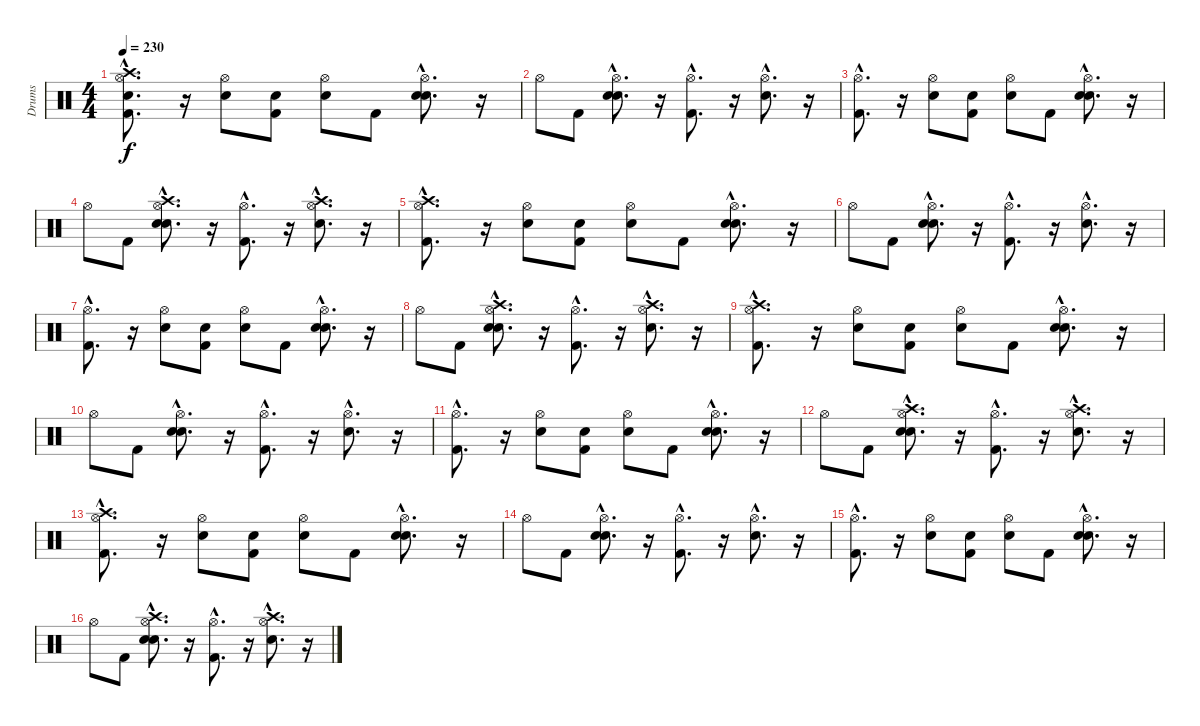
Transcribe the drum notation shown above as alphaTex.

\track ("Drums" "Drums") {instrument percussion}
\staff {score}
\articulation defaults
\ts (4 4)
\tempo 230
\clef neutral
\ks c
("Snare (hit)"{hac} "Kick (hit) 2"{hac} "Hi-Hat (open)"{hac} "Crash high (hit)"{hac}).8{d dy f} r.16 ("Snare (hit) 2" "Hi-Hat (open)").8 ("Snare (hit)" "Kick (hit) 2").8 ("Snare (hit)" "Hi-Hat (open)").8 "Kick (hit) 2".8 ("Snare (hit)"{hac} "Snare (hit) 2"{hac} "Hi-Hat (open)"{hac}).8{d} r.16 |
"Hi-Hat (open)".8 "Kick (hit) 2".8 ("Snare (hit)"{hac} "Snare (hit) 2"{hac} "Hi-Hat (open)"{hac}).8{d} r.16 ("Kick (hit) 2"{hac} "Hi-Hat (open)"{hac}).8{d} r.16 ("Snare (hit) 2"{hac} "Hi-Hat (open)"{hac}).8{d} r.16 |
("Kick (hit) 2"{hac} "Hi-Hat (open)"{hac}).8{d} r.16 ("Snare (hit) 2" "Hi-Hat (open)").8 ("Snare (hit)" "Kick (hit) 2").8 ("Snare (hit)" "Hi-Hat (open)").8 "Kick (hit) 2".8 ("Snare (hit)"{hac} "Snare (hit) 2"{hac} "Hi-Hat (open)"{hac}).8{d} r.16 |
"Hi-Hat (open)".8 "Kick (hit) 2".8 ("Snare (hit)"{hac} "Snare (hit) 2"{hac} "Hi-Hat (open)"{hac} "Crash high (hit)"{hac}).8{d} r.16 ("Kick (hit) 2"{hac} "Hi-Hat (open)"{hac}).8{d} r.16 ("Snare (hit) 2"{hac} "Hi-Hat (open)"{hac} "Crash high (hit)"{hac}).8{d} r.16 |
("Kick (hit) 2"{hac} "Hi-Hat (open)"{hac} "Crash high (hit)"{hac}).8{d} r.16 ("Snare (hit) 2" "Hi-Hat (open)").8 ("Snare (hit)" "Kick (hit) 2").8 ("Snare (hit)" "Hi-Hat (open)").8 "Kick (hit) 2".8 ("Snare (hit)"{hac} "Snare (hit) 2"{hac} "Hi-Hat (open)"{hac}).8{d} r.16 |
"Hi-Hat (open)".8 "Kick (hit) 2".8 ("Snare (hit)"{hac} "Snare (hit) 2"{hac} "Hi-Hat (open)"{hac}).8{d} r.16 ("Kick (hit) 2"{hac} "Hi-Hat (open)"{hac}).8{d} r.16 ("Snare (hit) 2"{hac} "Hi-Hat (open)"{hac}).8{d} r.16 |
("Kick (hit) 2"{hac} "Hi-Hat (open)"{hac}).8{d} r.16 ("Snare (hit) 2" "Hi-Hat (open)").8 ("Snare (hit)" "Kick (hit) 2").8 ("Snare (hit)" "Hi-Hat (open)").8 "Kick (hit) 2".8 ("Snare (hit)"{hac} "Snare (hit) 2"{hac} "Hi-Hat (open)"{hac}).8{d} r.16 |
"Hi-Hat (open)".8 "Kick (hit) 2".8 ("Snare (hit)"{hac} "Snare (hit) 2"{hac} "Hi-Hat (open)"{hac} "Crash high (hit)"{hac}).8{d} r.16 ("Kick (hit) 2"{hac} "Hi-Hat (open)"{hac}).8{d} r.16 ("Snare (hit) 2"{hac} "Hi-Hat (open)"{hac} "Crash high (hit)"{hac}).8{d} r.16 |
("Kick (hit) 2"{hac} "Hi-Hat (open)"{hac} "Crash high (hit)"{hac}).8{d} r.16 ("Snare (hit) 2" "Hi-Hat (open)").8 ("Snare (hit)" "Kick (hit) 2").8 ("Snare (hit)" "Hi-Hat (open)").8 "Kick (hit) 2".8 ("Snare (hit)"{hac} "Snare (hit) 2"{hac} "Hi-Hat (open)"{hac}).8{d} r.16 |
"Hi-Hat (open)".8 "Kick (hit) 2".8 ("Snare (hit)"{hac} "Snare (hit) 2"{hac} "Hi-Hat (open)"{hac}).8{d} r.16 ("Kick (hit) 2"{hac} "Hi-Hat (open)"{hac}).8{d} r.16 ("Snare (hit) 2"{hac} "Hi-Hat (open)"{hac}).8{d} r.16 |
("Kick (hit) 2"{hac} "Hi-Hat (open)"{hac}).8{d} r.16 ("Snare (hit) 2" "Hi-Hat (open)").8 ("Snare (hit)" "Kick (hit) 2").8 ("Snare (hit)" "Hi-Hat (open)").8 "Kick (hit) 2".8 ("Snare (hit)"{hac} "Snare (hit) 2"{hac} "Hi-Hat (open)"{hac}).8{d} r.16 |
"Hi-Hat (open)".8 "Kick (hit) 2".8 ("Snare (hit)"{hac} "Snare (hit) 2"{hac} "Hi-Hat (open)"{hac} "Crash high (hit)"{hac}).8{d} r.16 ("Kick (hit) 2"{hac} "Hi-Hat (open)"{hac}).8{d} r.16 ("Snare (hit) 2"{hac} "Hi-Hat (open)"{hac} "Crash high (hit)"{hac}).8{d} r.16 |
("Kick (hit) 2"{hac} "Hi-Hat (open)"{hac} "Crash high (hit)"{hac}).8{d} r.16 ("Snare (hit) 2" "Hi-Hat (open)").8 ("Snare (hit)" "Kick (hit) 2").8 ("Snare (hit)" "Hi-Hat (open)").8 "Kick (hit) 2".8 ("Snare (hit)"{hac} "Snare (hit) 2"{hac} "Hi-Hat (open)"{hac}).8{d} r.16 |
"Hi-Hat (open)".8 "Kick (hit) 2".8 ("Snare (hit)"{hac} "Snare (hit) 2"{hac} "Hi-Hat (open)"{hac}).8{d} r.16 ("Kick (hit) 2"{hac} "Hi-Hat (open)"{hac}).8{d} r.16 ("Snare (hit) 2"{hac} "Hi-Hat (open)"{hac}).8{d} r.16 |
("Kick (hit) 2"{hac} "Hi-Hat (open)"{hac}).8{d} r.16 ("Snare (hit) 2" "Hi-Hat (open)").8 ("Snare (hit)" "Kick (hit) 2").8 ("Snare (hit)" "Hi-Hat (open)").8 "Kick (hit) 2".8 ("Snare (hit)"{hac} "Snare (hit) 2"{hac} "Hi-Hat (open)"{hac}).8{d} r.16 |
"Hi-Hat (open)".8 "Kick (hit) 2".8 ("Snare (hit)"{hac} "Snare (hit) 2"{hac} "Hi-Hat (open)"{hac} "Crash high (hit)"{hac}).8{d} r.16 ("Kick (hit) 2"{hac} "Hi-Hat (open)"{hac}).8{d} r.16 ("Snare (hit) 2"{hac} "Hi-Hat (open)"{hac} "Crash high (hit)"{hac}).8{d} r.16
